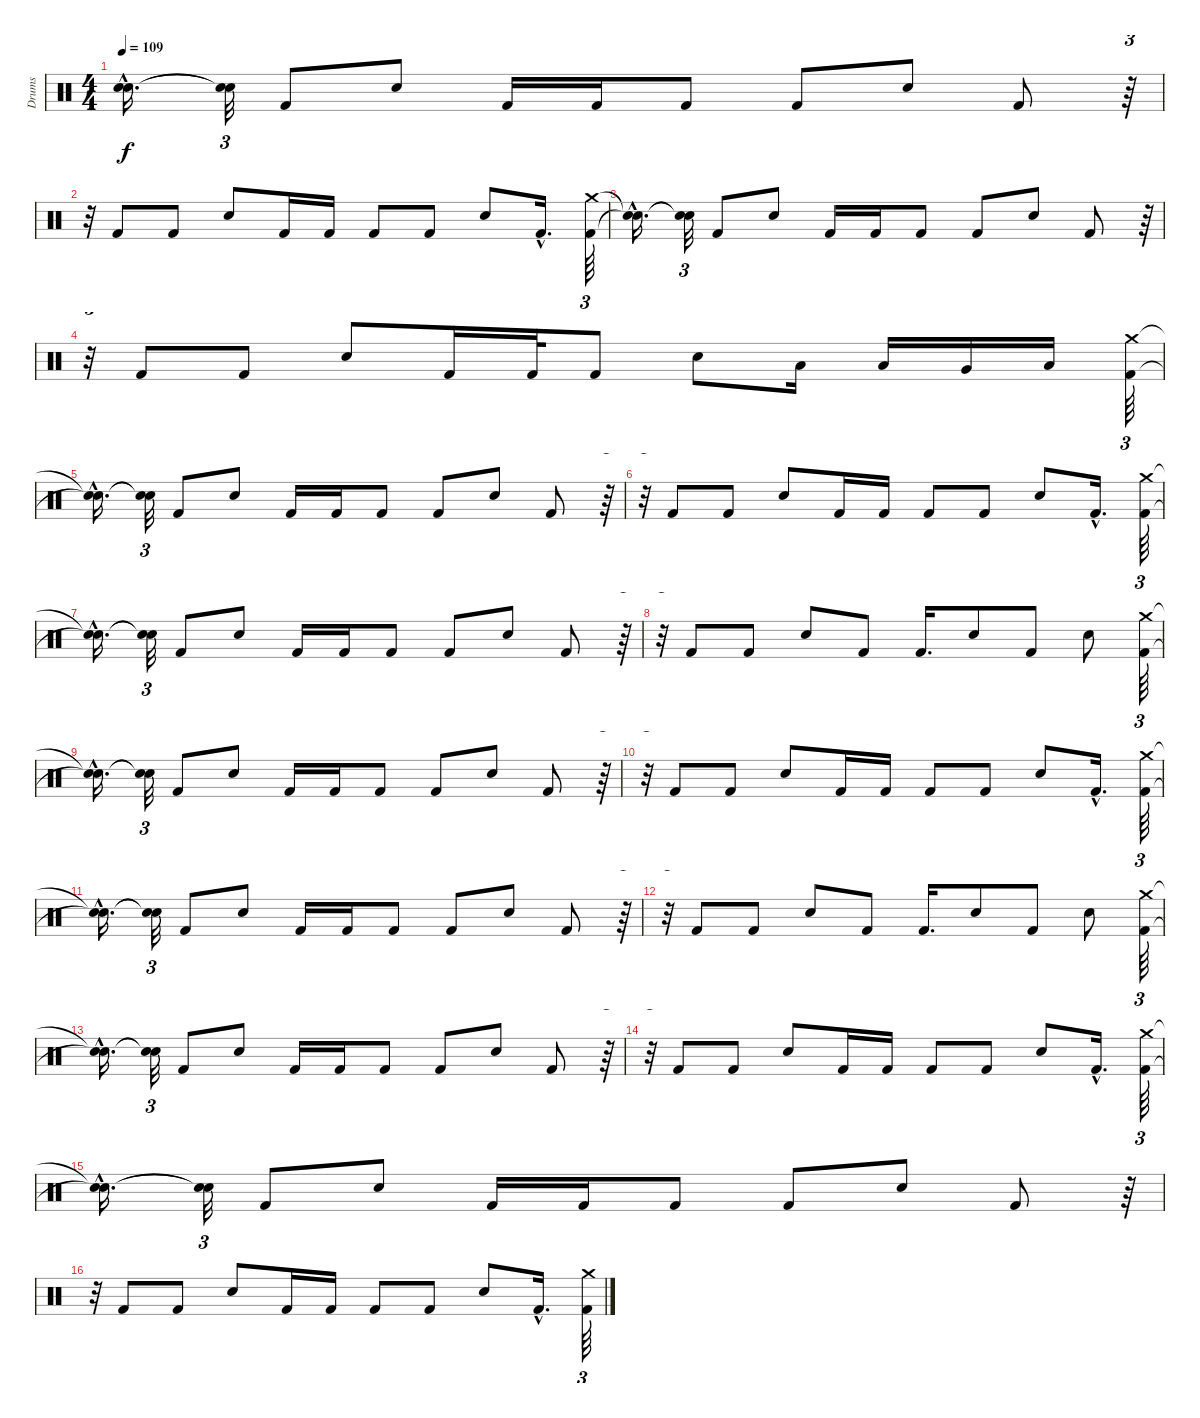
\track ("Drums" "Drums") {instrument percussion}
\staff {score}
\articulation defaults
\ts (4 4)
\tempo 109
\clef neutral
\ks c
("Snare (hit)"{hac t} "Snare (hit)"{hac t}).16{d dy f} ("Snare (hit)"{t} "Snare (hit)"{t}).32{tu (3 2)} "Kick (hit) 2".8 "Snare (hit) 2".8 "Kick (hit) 2".16 "Kick (hit) 2".16 "Kick (hit) 2".8 "Kick (hit) 2".8 "Snare (hit) 2".8 "Kick (hit) 2".8 r.64{tu (3 2)} |
r.32{tu (3 2)} "Kick (hit) 2".8 "Kick (hit) 2".8 "Snare (hit) 2".8 "Kick (hit) 2".16 "Kick (hit) 2".16 "Kick (hit) 2".8 "Kick (hit) 2".8 "Snare (hit) 2".8 "Kick (hit) 2"{hac}.16{d} ("Crash medium (hit)" "Kick (hit) 2").64{tu (3 2)} |
("Snare (hit)"{hac t} "Snare (hit)"{hac t}).16{d} ("Snare (hit)"{t} "Snare (hit)"{t}).32{tu (3 2)} "Kick (hit) 2".8 "Snare (hit) 2".8 "Kick (hit) 2".16 "Kick (hit) 2".16 "Kick (hit) 2".8 "Kick (hit) 2".8 "Snare (hit) 2".8 "Kick (hit) 2".8 r.64{tu (3 2)} |
r.32{tu (3 2)} "Kick (hit) 2".8 "Kick (hit) 2".8 "Snare (hit) 2".8 "Kick (hit) 2".16 "Kick (hit) 2".32 "Kick (hit) 2".8 "Snare (hit) 2".8 "Low Tom (hit)".16 "Low Tom (hit)".16 "Very Low Tom (hit)".16 "Low Floor Tom (hit)".16 ("Crash medium (hit)" "Kick (hit) 2").64{tu (3 2)} |
("Snare (hit)"{hac t} "Snare (hit)"{hac t}).16{d} ("Snare (hit)"{t} "Snare (hit)"{t}).32{tu (3 2)} "Kick (hit) 2".8 "Snare (hit) 2".8 "Kick (hit) 2".16 "Kick (hit) 2".16 "Kick (hit) 2".8 "Kick (hit) 2".8 "Snare (hit) 2".8 "Kick (hit) 2".8 r.64{tu (3 2)} |
r.32{tu (3 2)} "Kick (hit) 2".8 "Kick (hit) 2".8 "Snare (hit) 2".8 "Kick (hit) 2".16 "Kick (hit) 2".16 "Kick (hit) 2".8 "Kick (hit) 2".8 "Snare (hit) 2".8 "Kick (hit) 2"{hac}.16{d} ("Crash medium (hit)" "Kick (hit) 2").64{tu (3 2)} |
("Snare (hit)"{hac t} "Snare (hit)"{hac t}).16{d} ("Snare (hit)"{t} "Snare (hit)"{t}).32{tu (3 2)} "Kick (hit) 2".8 "Snare (hit) 2".8 "Kick (hit) 2".16 "Kick (hit) 2".16 "Kick (hit) 2".8 "Kick (hit) 2".8 "Snare (hit) 2".8 "Kick (hit) 2".8 r.64{tu (3 2)} |
r.32{tu (3 2)} "Kick (hit) 2".8 "Kick (hit) 2".8 "Snare (hit) 2".8 "Kick (hit) 2".8 "Kick (hit) 2".16{d} "Snare (hit) 2".8 "Kick (hit) 2".8 "Snare (hit) 2".8 ("Crash medium (hit)" "Kick (hit) 2").64{tu (3 2)} |
("Snare (hit)"{hac t} "Snare (hit)"{hac t}).16{d} ("Snare (hit)"{t} "Snare (hit)"{t}).32{tu (3 2)} "Kick (hit) 2".8 "Snare (hit) 2".8 "Kick (hit) 2".16 "Kick (hit) 2".16 "Kick (hit) 2".8 "Kick (hit) 2".8 "Snare (hit) 2".8 "Kick (hit) 2".8 r.64{tu (3 2)} |
r.32{tu (3 2)} "Kick (hit) 2".8 "Kick (hit) 2".8 "Snare (hit) 2".8 "Kick (hit) 2".16 "Kick (hit) 2".16 "Kick (hit) 2".8 "Kick (hit) 2".8 "Snare (hit) 2".8 "Kick (hit) 2"{hac}.16{d} ("Crash medium (hit)" "Kick (hit) 2").64{tu (3 2)} |
("Snare (hit)"{hac t} "Snare (hit)"{hac t}).16{d} ("Snare (hit)"{t} "Snare (hit)"{t}).32{tu (3 2)} "Kick (hit) 2".8 "Snare (hit) 2".8 "Kick (hit) 2".16 "Kick (hit) 2".16 "Kick (hit) 2".8 "Kick (hit) 2".8 "Snare (hit) 2".8 "Kick (hit) 2".8 r.64{tu (3 2)} |
r.32{tu (3 2)} "Kick (hit) 2".8 "Kick (hit) 2".8 "Snare (hit) 2".8 "Kick (hit) 2".8 "Kick (hit) 2".16{d} "Snare (hit) 2".8 "Kick (hit) 2".8 "Snare (hit) 2".8 ("Crash medium (hit)" "Kick (hit) 2").64{tu (3 2)} |
("Snare (hit)"{hac t} "Snare (hit)"{hac t}).16{d} ("Snare (hit)"{t} "Snare (hit)"{t}).32{tu (3 2)} "Kick (hit) 2".8 "Snare (hit) 2".8 "Kick (hit) 2".16 "Kick (hit) 2".16 "Kick (hit) 2".8 "Kick (hit) 2".8 "Snare (hit) 2".8 "Kick (hit) 2".8 r.64{tu (3 2)} |
r.32{tu (3 2)} "Kick (hit) 2".8 "Kick (hit) 2".8 "Snare (hit) 2".8 "Kick (hit) 2".16 "Kick (hit) 2".16 "Kick (hit) 2".8 "Kick (hit) 2".8 "Snare (hit) 2".8 "Kick (hit) 2"{hac}.16{d} ("Crash medium (hit)" "Kick (hit) 2").64{tu (3 2)} |
("Snare (hit)"{hac t} "Snare (hit)"{hac t}).16{d} ("Snare (hit)"{t} "Snare (hit)"{t}).32{tu (3 2)} "Kick (hit) 2".8 "Snare (hit) 2".8 "Kick (hit) 2".16 "Kick (hit) 2".16 "Kick (hit) 2".8 "Kick (hit) 2".8 "Snare (hit) 2".8 "Kick (hit) 2".8 r.64{tu (3 2)} |
r.32{tu (3 2)} "Kick (hit) 2".8 "Kick (hit) 2".8 "Snare (hit) 2".8 "Kick (hit) 2".16 "Kick (hit) 2".16 "Kick (hit) 2".8 "Kick (hit) 2".8 "Snare (hit) 2".8 "Kick (hit) 2"{hac}.16{d} ("Crash medium (hit)" "Kick (hit) 2").64{tu (3 2)}
